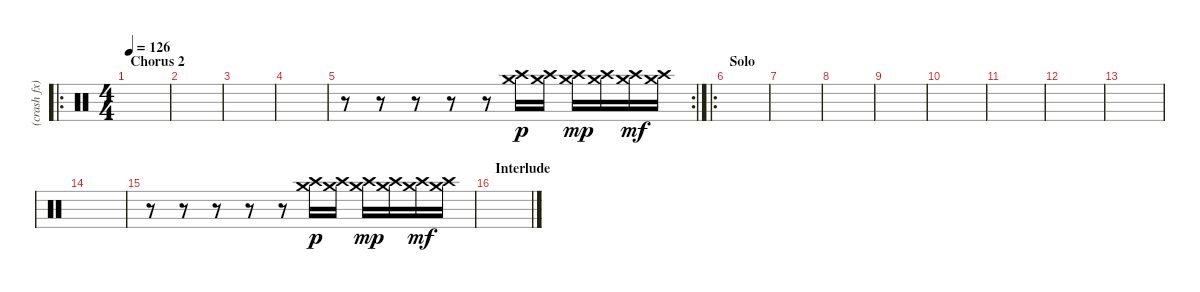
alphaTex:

\track ("(crash fx)" "(crash fx)") {instrument percussion}
\staff {score}
\articulation defaults
\ro
\ts (4 4)
\section ("" "Chorus 2")
\tempo 126
\clef neutral
\ks c
|
|
|
|
\rc 2
r.8 r.8 r.8 r.8 r.8 ("Crash medium (hit)" "Crash high (hit)").16{dy p} ("Crash medium (hit)" "Crash high (hit)").16 ("Crash medium (hit)" "Crash high (hit)").16{dy mp} ("Crash medium (hit)" "Crash high (hit)").16 ("Crash medium (hit)" "Crash high (hit)").16{dy mf} ("Crash medium (hit)" "Crash high (hit)").16 |
\ro
\section ("" "Solo")
|
|
|
|
|
|
|
|
|
r.8 r.8 r.8 r.8 r.8 ("Crash medium (hit)" "Crash high (hit)").16{dy p} ("Crash medium (hit)" "Crash high (hit)").16 ("Crash medium (hit)" "Crash high (hit)").16{dy mp} ("Crash medium (hit)" "Crash high (hit)").16 ("Crash medium (hit)" "Crash high (hit)").16{dy mf} ("Crash medium (hit)" "Crash high (hit)").16 |
\section ("" "Interlude")
